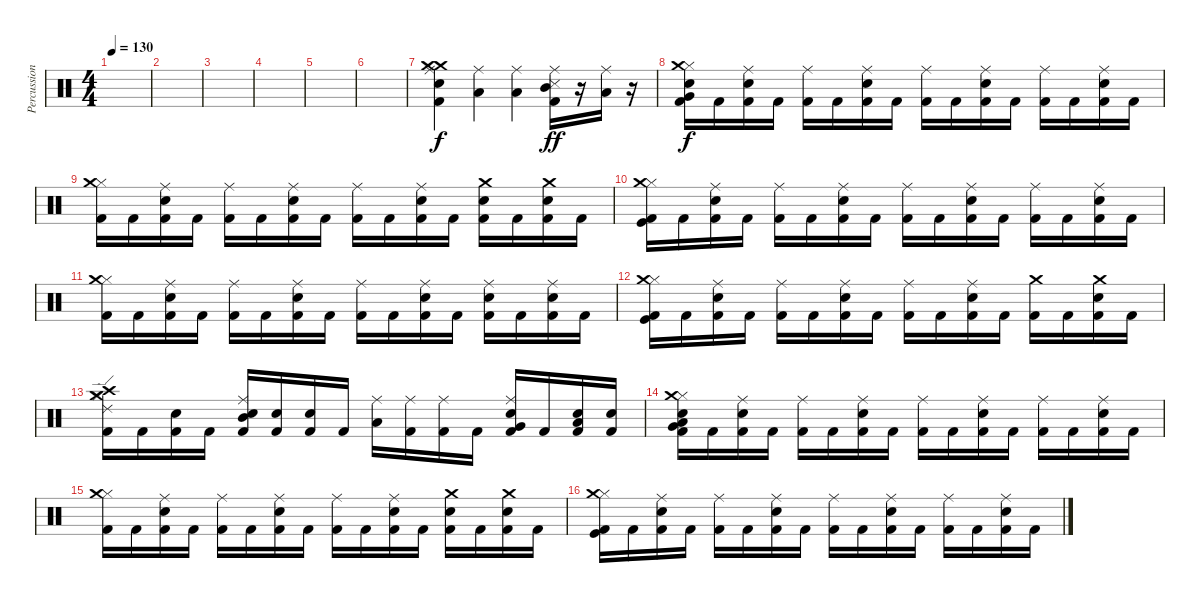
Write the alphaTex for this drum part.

\track ("Percussion" "Percussion") {instrument percussion}
\staff {score}
\articulation defaults
\ts (4 4)
\tempo 130
\clef neutral
\ks c
|
|
|
|
|
|
("Snare (hit) 2" "Kick (hit) 2" "Crash medium (hit)" "Crash medium (hit)" "Ride (middle)").4 ("Ride (middle)" "Low Floor Tom (hit)").4 ("Ride (middle)" "Low Floor Tom (hit)").4 ("Kick (hit) 2" "Snare (side stick) 3" "Ride (middle)" "Mid Tom (hit)").16{dy ff} r.16 ("Ride (middle)" "Low Tom (hit)").16 r.16 |
("Kick (hit) 2" "Snare (hit) 2" "Hi-Hat (closed)" "Crash medium (hit)" "Very Low Tom (hit)").16{dy f} "Kick (hit) 2".16 ("Kick (hit) 2" "Snare (hit) 2" "Ride (middle)").16 "Kick (hit) 2".16 ("Kick (hit) 2" "Ride (middle)").16 "Kick (hit) 2".16 ("Kick (hit) 2" "Snare (hit) 2" "Ride (middle)").16 "Kick (hit) 2".16 ("Kick (hit) 2" "Ride (middle)").16 "Kick (hit) 2".16 ("Kick (hit) 2" "Snare (hit) 2" "Ride (middle)").16 "Kick (hit) 2".16 ("Kick (hit) 2" "Ride (middle)").16 "Kick (hit) 2".16 ("Kick (hit) 2" "Snare (hit) 2" "Ride (middle)").16 "Kick (hit) 2".16 |
("Kick (hit) 2" "Hi-Hat (closed)" "Crash medium (hit)").16 "Kick (hit) 2".16 ("Kick (hit) 2" "Snare (hit) 2" "Ride (middle)").16 "Kick (hit) 2".16 ("Kick (hit) 2" "Ride (middle)").16 "Kick (hit) 2".16 ("Kick (hit) 2" "Snare (hit) 2" "Ride (middle)").16 "Kick (hit) 2".16 ("Kick (hit) 2" "Ride (middle)").16 "Kick (hit) 2".16 ("Kick (hit) 2" "Snare (hit) 2" "Ride (middle)").16 "Kick (hit) 2".16 ("Kick (hit) 2" "Snare (hit) 2" "Crash medium (hit)").16 "Kick (hit) 2".16 ("Kick (hit) 2" "Snare (hit) 2" "Crash medium (hit)").16 "Kick (hit) 2".16 |
("Kick (hit) 2" "Hi-Hat (closed)" "Kick (hit)" "Crash medium (hit)").16 "Kick (hit) 2".16 ("Kick (hit) 2" "Snare (hit) 2" "Ride (middle)").16 "Kick (hit) 2".16 ("Kick (hit) 2" "Ride (middle)").16 "Kick (hit) 2".16 ("Kick (hit) 2" "Snare (hit) 2" "Ride (middle)").16 "Kick (hit) 2".16 ("Kick (hit) 2" "Ride (middle)").16 "Kick (hit) 2".16 ("Kick (hit) 2" "Snare (hit) 2" "Ride (middle)").16 "Kick (hit) 2".16 ("Kick (hit) 2" "Ride (middle)").16 "Kick (hit) 2".16 ("Kick (hit) 2" "Snare (hit) 2" "Ride (middle)").16 "Kick (hit) 2".16 |
("Kick (hit) 2" "Hi-Hat (closed)" "Crash medium (hit)").16 "Kick (hit) 2".16 ("Kick (hit) 2" "Snare (hit) 2" "Ride (middle)").16 "Kick (hit) 2".16 ("Kick (hit) 2" "Ride (middle)").16 "Kick (hit) 2".16 ("Kick (hit) 2" "Snare (hit) 2" "Ride (middle)").16 "Kick (hit) 2".16 ("Kick (hit) 2" "Ride (middle)").16 "Kick (hit) 2".16 ("Kick (hit) 2" "Snare (hit) 2" "Ride (middle)").16 "Kick (hit) 2".16 ("Kick (hit) 2" "Snare (hit) 2" "Ride (middle)").16 "Kick (hit) 2".16 ("Kick (hit) 2" "Snare (hit) 2" "Ride (middle)").16 "Kick (hit) 2".16 |
("Kick (hit) 2" "Hi-Hat (closed)" "Kick (hit)" "Crash medium (hit)").16 "Kick (hit) 2".16 ("Kick (hit) 2" "Snare (hit) 2" "Ride (middle)").16 "Kick (hit) 2".16 ("Kick (hit) 2" "Ride (middle)").16 "Kick (hit) 2".16 ("Kick (hit) 2" "Snare (hit) 2" "Ride (middle)").16 "Kick (hit) 2".16 ("Kick (hit) 2" "Ride (middle)").16 "Kick (hit) 2".16 ("Kick (hit) 2" "Snare (hit) 2" "Ride (middle)").16 "Kick (hit) 2".16 ("Kick (hit) 2" "Crash medium (hit)").16 "Kick (hit) 2".16 ("Kick (hit) 2" "Snare (hit) 2" "Crash medium (hit)").16 "Kick (hit) 2".16 |
("Kick (hit) 2" "Hi-Hat (closed)" "Ride (edge) 2" "Crash medium (hit)" "Crash high (hit)").16 "Kick (hit) 2".16 ("Kick (hit) 2" "Snare (hit) 2").16 "Kick (hit) 2".16 ("Kick (hit) 2" "Snare (hit) 2" "Ride (middle)" "Mid Tom (hit)").16 ("Kick (hit) 2" "Snare (hit) 2").16 ("Kick (hit) 2" "Snare (hit) 2").16 "Kick (hit) 2".16 ("Ride (middle)" "Low Tom (hit)").16 ("Kick (hit) 2" "Ride (middle)").16 ("Kick (hit) 2" "Ride (middle)").16 "Kick (hit) 2".16 ("Kick (hit) 2" "Snare (hit) 2" "Ride (middle)" "Very Low Tom (hit)").16 "Kick (hit) 2".16 ("Kick (hit) 2" "Snare (hit) 2" "Low Floor Tom (hit)").16 ("Kick (hit) 2" "Snare (hit) 2").16 |
("Kick (hit) 2" "Snare (hit) 2" "Hi-Hat (closed)" "Very Low Tom (hit)" "Crash medium (hit)" "Low Floor Tom (hit)").16 "Kick (hit) 2".16 ("Kick (hit) 2" "Snare (hit) 2" "Ride (middle)").16 "Kick (hit) 2".16 ("Kick (hit) 2" "Ride (middle)").16 "Kick (hit) 2".16 ("Kick (hit) 2" "Snare (hit) 2" "Ride (middle)").16 "Kick (hit) 2".16 ("Kick (hit) 2" "Ride (middle)").16 "Kick (hit) 2".16 ("Kick (hit) 2" "Snare (hit) 2" "Ride (middle)").16 "Kick (hit) 2".16 ("Kick (hit) 2" "Ride (middle)").16 "Kick (hit) 2".16 ("Kick (hit) 2" "Snare (hit) 2" "Ride (middle)").16 "Kick (hit) 2".16 |
("Kick (hit) 2" "Hi-Hat (closed)" "Crash medium (hit)").16 "Kick (hit) 2".16 ("Kick (hit) 2" "Snare (hit) 2" "Ride (middle)").16 "Kick (hit) 2".16 ("Kick (hit) 2" "Ride (middle)").16 "Kick (hit) 2".16 ("Kick (hit) 2" "Snare (hit) 2" "Ride (middle)").16 "Kick (hit) 2".16 ("Kick (hit) 2" "Ride (middle)").16 "Kick (hit) 2".16 ("Kick (hit) 2" "Snare (hit) 2" "Ride (middle)").16 "Kick (hit) 2".16 ("Kick (hit) 2" "Snare (hit) 2" "Crash medium (hit)").16 "Kick (hit) 2".16 ("Kick (hit) 2" "Snare (hit) 2" "Crash medium (hit)").16 "Kick (hit) 2".16 |
("Kick (hit) 2" "Hi-Hat (closed)" "Kick (hit)" "Crash medium (hit)").16 "Kick (hit) 2".16 ("Kick (hit) 2" "Snare (hit) 2" "Ride (middle)").16 "Kick (hit) 2".16 ("Kick (hit) 2" "Ride (middle)").16 "Kick (hit) 2".16 ("Kick (hit) 2" "Snare (hit) 2" "Ride (middle)").16 "Kick (hit) 2".16 ("Kick (hit) 2" "Ride (middle)").16 "Kick (hit) 2".16 ("Kick (hit) 2" "Snare (hit) 2" "Ride (middle)").16 "Kick (hit) 2".16 ("Kick (hit) 2" "Ride (middle)").16 "Kick (hit) 2".16 ("Kick (hit) 2" "Snare (hit) 2" "Ride (middle)").16 "Kick (hit) 2".16
